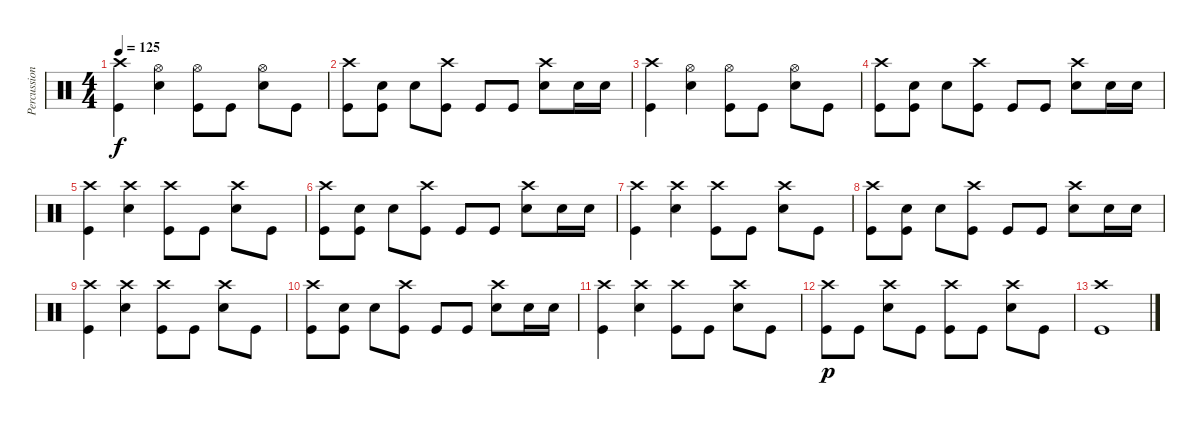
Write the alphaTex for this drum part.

\track ("Percussion" "Percussion") {instrument percussion}
\staff {score}
\articulation defaults
\ts (4 4)
\tempo 125
\clef neutral
\ks c
("Crash high (hit)" "Kick (hit)").4{dy f} ("Hi-Hat (open)" "Electric Snare (hit)").4 ("Hi-Hat (open)" "Kick (hit)").8 "Kick (hit)".8 ("Hi-Hat (open)" "Electric Snare (hit)").8 "Kick (hit)".8 |
("Crash high (hit)" "Kick (hit)").8 ("Electric Snare (hit)" "Kick (hit)").8 "Electric Snare (hit)".8 ("Crash high (hit)" "Kick (hit)").8 "Kick (hit)".8 "Kick (hit)".8 ("Crash high (hit)" "Electric Snare (hit)").8 "Electric Snare (hit)".16 "Electric Snare (hit)".16 |
("Crash high (hit)" "Kick (hit)").4 ("Hi-Hat (open)" "Electric Snare (hit)").4 ("Hi-Hat (open)" "Kick (hit)").8 "Kick (hit)".8 ("Hi-Hat (open)" "Electric Snare (hit)").8 "Kick (hit)".8 |
("Crash high (hit)" "Kick (hit)").8 ("Electric Snare (hit)" "Kick (hit)").8 "Electric Snare (hit)".8 ("Crash high (hit)" "Kick (hit)").8 "Kick (hit)".8 "Kick (hit)".8 ("Crash high (hit)" "Electric Snare (hit)").8 "Electric Snare (hit)".16 "Electric Snare (hit)".16 |
("Crash high (hit)" "Kick (hit)").4 ("Crash high (hit)" "Electric Snare (hit)").4 ("Crash high (hit)" "Kick (hit)").8 "Kick (hit)".8 ("Crash high (hit)" "Electric Snare (hit)").8 "Kick (hit)".8 |
("Crash high (hit)" "Kick (hit)").8 ("Electric Snare (hit)" "Kick (hit)").8 "Electric Snare (hit)".8 ("Crash high (hit)" "Kick (hit)").8 "Kick (hit)".8 "Kick (hit)".8 ("Crash high (hit)" "Electric Snare (hit)").8 "Electric Snare (hit)".16 "Electric Snare (hit)".16 |
("Crash high (hit)" "Kick (hit)").4 ("Crash high (hit)" "Electric Snare (hit)").4 ("Crash high (hit)" "Kick (hit)").8 "Kick (hit)".8 ("Crash high (hit)" "Electric Snare (hit)").8 "Kick (hit)".8 |
("Crash high (hit)" "Kick (hit)").8 ("Electric Snare (hit)" "Kick (hit)").8 "Electric Snare (hit)".8 ("Crash high (hit)" "Kick (hit)").8 "Kick (hit)".8 "Kick (hit)".8 ("Crash high (hit)" "Electric Snare (hit)").8 "Electric Snare (hit)".16 "Electric Snare (hit)".16 |
("Crash high (hit)" "Kick (hit)").4 ("Crash high (hit)" "Electric Snare (hit)").4 ("Crash high (hit)" "Kick (hit)").8 "Kick (hit)".8 ("Crash high (hit)" "Electric Snare (hit)").8 "Kick (hit)".8 |
("Crash high (hit)" "Kick (hit)").8 ("Electric Snare (hit)" "Kick (hit)").8 "Electric Snare (hit)".8 ("Crash high (hit)" "Kick (hit)").8 "Kick (hit)".8 "Kick (hit)".8 ("Crash high (hit)" "Electric Snare (hit)").8 "Electric Snare (hit)".16 "Electric Snare (hit)".16 |
("Crash high (hit)" "Kick (hit)").4 ("Crash high (hit)" "Electric Snare (hit)").4 ("Crash high (hit)" "Kick (hit)").8 "Kick (hit)".8 ("Crash high (hit)" "Electric Snare (hit)").8 "Kick (hit)".8 |
("Crash high (hit)" "Kick (hit)").8{dy p} "Kick (hit)".8 ("Crash high (hit)" "Electric Snare (hit)").8 "Kick (hit)".8 ("Crash high (hit)" "Kick (hit)").8 "Kick (hit)".8 ("Crash high (hit)" "Electric Snare (hit)").8 "Kick (hit)".8 |
("Crash high (hit)" "Kick (hit)").1
